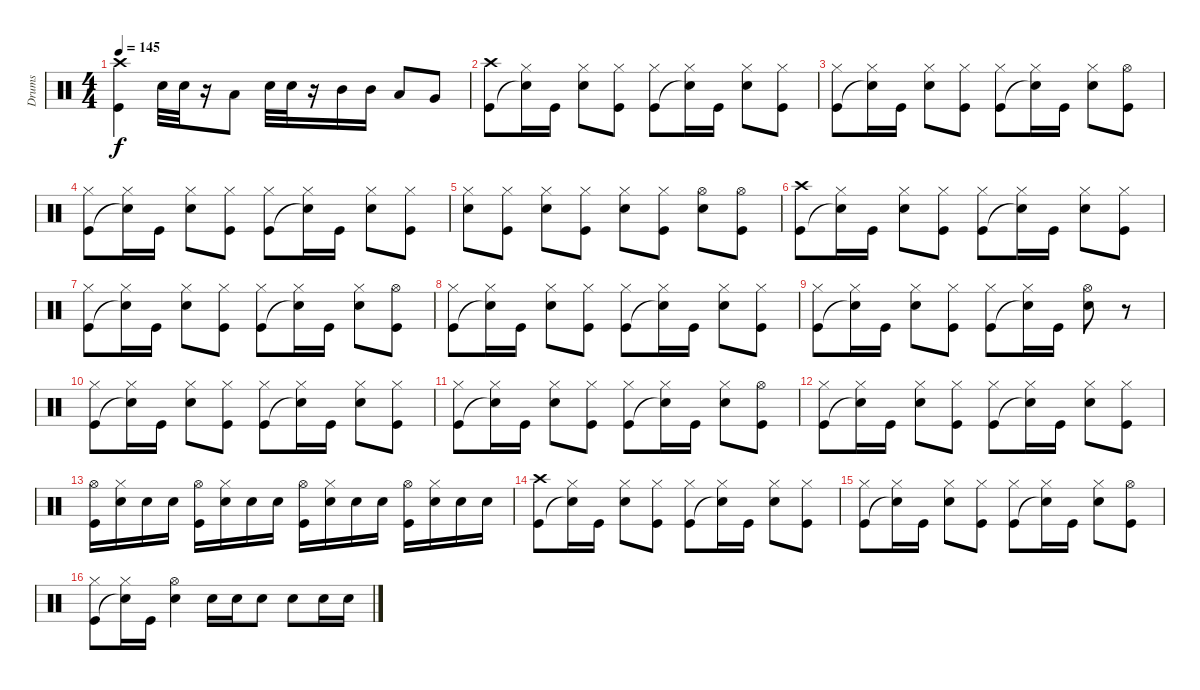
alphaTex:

\track ("Drums" "Drums") {instrument percussion}
\staff {score}
\articulation defaults
\ts (4 4)
\tempo 145
\clef neutral
\ks c
("Crash high (hit)" "Kick (hit)").4{dy f} "Snare (hit) 2".32 "Snare (hit) 2".32 r.16 "Low Tom (hit)".8 "Snare (hit) 2".32 "Snare (hit) 2".32 r.16 "Mid Tom (hit)".16 "Mid Tom (hit)".16 "Low Tom (hit)".8 "Very Low Tom (hit)".8 |
("Crash high (hit)" "Kick (hit)").8 ("Hi-Hat (closed)" "Snare (hit) 2"{t}).16 "Kick (hit)".16 ("Hi-Hat (closed)" "Snare (hit) 2").8 ("Hi-Hat (closed)" "Kick (hit)").8 ("Hi-Hat (closed)" "Kick (hit)").8 ("Hi-Hat (closed)" "Snare (hit)"{t}).16 "Kick (hit)".16 ("Hi-Hat (closed)" "Snare (hit) 2").8 ("Hi-Hat (closed)" "Kick (hit)").8 |
("Hi-Hat (closed)" "Kick (hit)").8 ("Hi-Hat (closed)" "Snare (hit) 2"{t}).16 "Kick (hit)".16 ("Hi-Hat (closed)" "Snare (hit) 2").8 ("Hi-Hat (closed)" "Kick (hit)").8 ("Hi-Hat (closed)" "Kick (hit)").8 ("Hi-Hat (closed)" "Snare (hit)"{t}).16 "Kick (hit)".16 ("Hi-Hat (closed)" "Snare (hit) 2").8 ("Hi-Hat (open)" "Kick (hit)").8 |
("Hi-Hat (closed)" "Kick (hit)").8 ("Hi-Hat (closed)" "Snare (hit) 2"{t}).16 "Kick (hit)".16 ("Hi-Hat (closed)" "Snare (hit) 2").8 ("Hi-Hat (closed)" "Kick (hit)").8 ("Hi-Hat (closed)" "Kick (hit)").8 ("Hi-Hat (closed)" "Snare (hit)"{t}).16 "Kick (hit)".16 ("Hi-Hat (closed)" "Snare (hit) 2").8 ("Hi-Hat (closed)" "Kick (hit)").8 |
("Hi-Hat (closed)" "Snare (hit) 2").8 ("Hi-Hat (closed)" "Kick (hit)").8 ("Hi-Hat (closed)" "Snare (hit) 2").8 ("Hi-Hat (closed)" "Kick (hit)").8 ("Hi-Hat (closed)" "Snare (hit) 2").8 ("Hi-Hat (closed)" "Kick (hit)").8 ("Hi-Hat (open)" "Snare (hit) 2").8 ("Hi-Hat (open)" "Kick (hit)").8 |
("Crash high (hit)" "Kick (hit)").8 ("Hi-Hat (closed)" "Snare (hit) 2"{t}).16 "Kick (hit)".16 ("Hi-Hat (closed)" "Snare (hit) 2").8 ("Hi-Hat (closed)" "Kick (hit)").8 ("Hi-Hat (closed)" "Kick (hit)").8 ("Hi-Hat (closed)" "Snare (hit)"{t}).16 "Kick (hit)".16 ("Hi-Hat (closed)" "Snare (hit) 2").8 ("Hi-Hat (closed)" "Kick (hit)").8 |
("Hi-Hat (closed)" "Kick (hit)").8 ("Hi-Hat (closed)" "Snare (hit) 2"{t}).16 "Kick (hit)".16 ("Hi-Hat (closed)" "Snare (hit) 2").8 ("Hi-Hat (closed)" "Kick (hit)").8 ("Hi-Hat (closed)" "Kick (hit)").8 ("Hi-Hat (closed)" "Snare (hit)"{t}).16 "Kick (hit)".16 ("Hi-Hat (closed)" "Snare (hit) 2").8 ("Hi-Hat (open)" "Kick (hit)").8 |
("Hi-Hat (closed)" "Kick (hit)").8 ("Hi-Hat (closed)" "Snare (hit) 2"{t}).16 "Kick (hit)".16 ("Hi-Hat (closed)" "Snare (hit) 2").8 ("Hi-Hat (closed)" "Kick (hit)").8 ("Hi-Hat (closed)" "Kick (hit)").8 ("Hi-Hat (closed)" "Snare (hit)"{t}).16 "Kick (hit)".16 ("Hi-Hat (closed)" "Snare (hit) 2").8 ("Hi-Hat (closed)" "Kick (hit)").8 |
("Hi-Hat (closed)" "Kick (hit)").8 ("Hi-Hat (closed)" "Snare (hit) 2"{t}).16 "Kick (hit)".16 ("Hi-Hat (closed)" "Snare (hit) 2").8 ("Hi-Hat (closed)" "Kick (hit)").8 ("Hi-Hat (closed)" "Kick (hit)").8 ("Hi-Hat (closed)" "Snare (hit)"{t}).16 "Kick (hit)".16 ("Hi-Hat (open)" "Snare (hit) 2").8 r.8 |
("Hi-Hat (closed)" "Kick (hit)").8 ("Hi-Hat (closed)" "Snare (hit) 2"{t}).16 "Kick (hit)".16 ("Hi-Hat (closed)" "Snare (hit) 2").8 ("Hi-Hat (closed)" "Kick (hit)").8 ("Hi-Hat (closed)" "Kick (hit)").8 ("Hi-Hat (closed)" "Snare (hit)"{t}).16 "Kick (hit)".16 ("Hi-Hat (closed)" "Snare (hit) 2").8 ("Hi-Hat (closed)" "Kick (hit)").8 |
("Hi-Hat (closed)" "Kick (hit)").8 ("Hi-Hat (closed)" "Snare (hit) 2"{t}).16 "Kick (hit)".16 ("Hi-Hat (closed)" "Snare (hit) 2").8 ("Hi-Hat (closed)" "Kick (hit)").8 ("Hi-Hat (closed)" "Kick (hit)").8 ("Hi-Hat (closed)" "Snare (hit)"{t}).16 "Kick (hit)".16 ("Hi-Hat (closed)" "Snare (hit) 2").8 ("Hi-Hat (open)" "Kick (hit)").8 |
("Hi-Hat (closed)" "Kick (hit)").8 ("Hi-Hat (closed)" "Snare (hit) 2"{t}).16 "Kick (hit)".16 ("Hi-Hat (closed)" "Snare (hit) 2").8 ("Hi-Hat (closed)" "Kick (hit)").8 ("Hi-Hat (closed)" "Kick (hit)").8 ("Hi-Hat (closed)" "Snare (hit)"{t}).16 "Kick (hit)".16 ("Hi-Hat (closed)" "Snare (hit) 2").8 ("Hi-Hat (closed)" "Kick (hit)").8 |
("Hi-Hat (open)" "Kick (hit)").16 ("Hi-Hat (closed)" "Snare (hit) 2").16 "Snare (hit) 2".16 "Snare (hit) 2".16 ("Hi-Hat (open)" "Kick (hit)").16 ("Hi-Hat (closed)" "Snare (hit) 2").16 "Snare (hit) 2".16 "Snare (hit) 2".16 ("Hi-Hat (open)" "Kick (hit)").16 ("Hi-Hat (closed)" "Snare (hit) 2").16 "Snare (hit) 2".16 "Snare (hit) 2".16 ("Hi-Hat (open)" "Kick (hit)").16 ("Hi-Hat (closed)" "Snare (hit) 2").16 "Snare (hit) 2".16 "Snare (hit) 2".16 |
("Crash high (hit)" "Kick (hit)").8 ("Hi-Hat (closed)" "Snare (hit) 2"{t}).16 "Kick (hit)".16 ("Hi-Hat (closed)" "Snare (hit) 2").8 ("Hi-Hat (closed)" "Kick (hit)").8 ("Hi-Hat (closed)" "Kick (hit)").8 ("Hi-Hat (closed)" "Snare (hit)"{t}).16 "Kick (hit)".16 ("Hi-Hat (closed)" "Snare (hit) 2").8 ("Hi-Hat (closed)" "Kick (hit)").8 |
("Hi-Hat (closed)" "Kick (hit)").8 ("Hi-Hat (closed)" "Snare (hit) 2"{t}).16 "Kick (hit)".16 ("Hi-Hat (closed)" "Snare (hit) 2").8 ("Hi-Hat (closed)" "Kick (hit)").8 ("Hi-Hat (closed)" "Kick (hit)").8 ("Hi-Hat (closed)" "Snare (hit)"{t}).16 "Kick (hit)".16 ("Hi-Hat (closed)" "Snare (hit) 2").8 ("Hi-Hat (open)" "Kick (hit)").8 |
("Hi-Hat (closed)" "Kick (hit)").8 ("Hi-Hat (closed)" "Snare (hit) 2"{t}).16 "Kick (hit)".16 ("Hi-Hat (open)" "Snare (hit) 2").4 "Snare (hit) 2".16 "Snare (hit) 2".16 "Snare (hit) 2".8 "Snare (hit) 2".8 "Snare (hit) 2".16 "Snare (hit) 2".16
